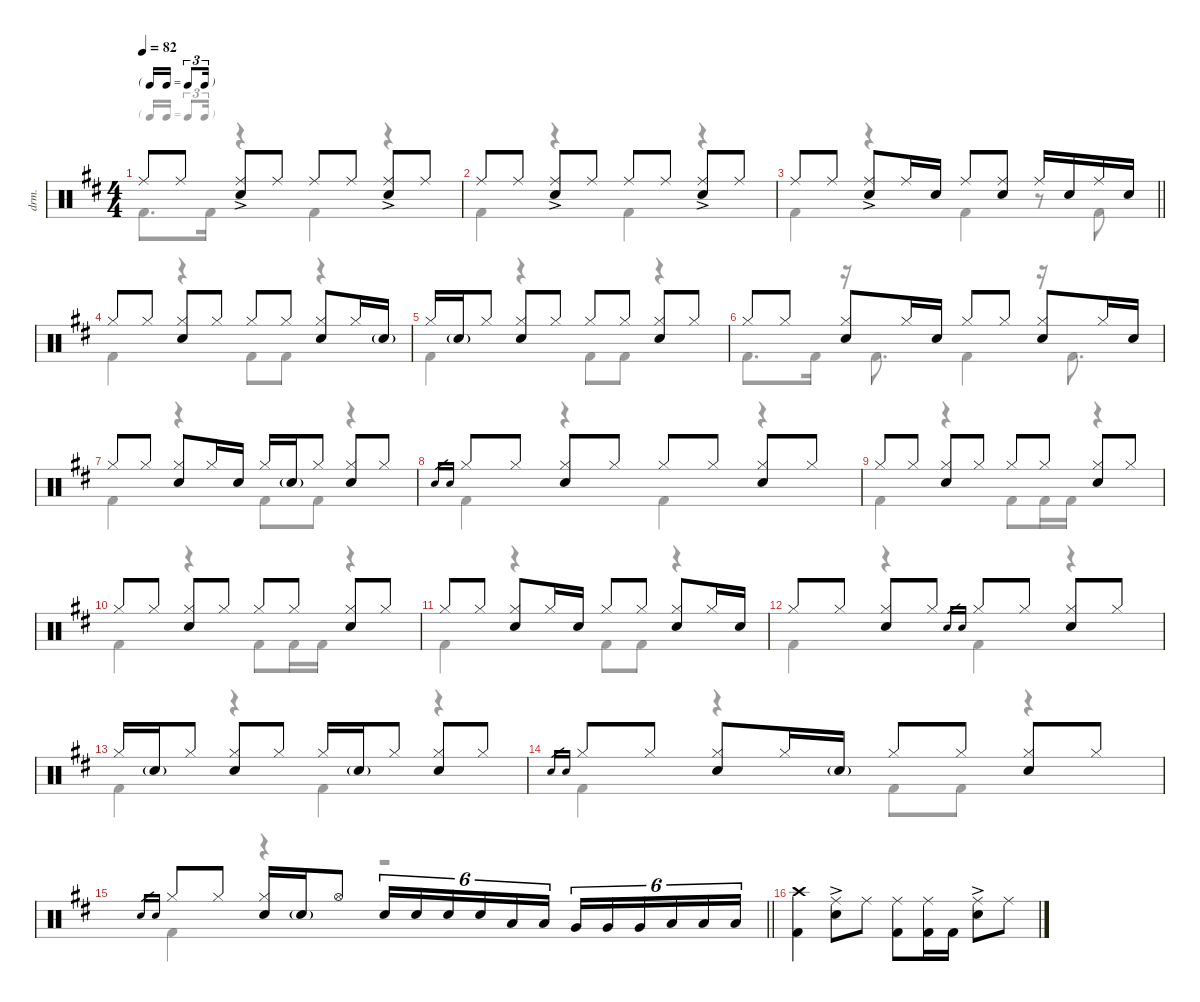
\defaultSystemsLayout 4
\hideDynamics
\bracketExtendMode nobrackets
\otherSystemsTrackNameOrientation horizontal
\track ("Buddy" "drm.") {instrument percussion}
\staff {score}
\articulation defaults
\voice
\ts (4 4)
\tf triplet16th
\tempo 82
\clef neutral
\ks d "Ride (middle)"{acc forcenatural}.8{dy f beam Up} "Ride (middle)"{acc forcenatural}.8{beam Up}
("Ride (middle)"{ac acc forcenatural} "Snare (hit) 2"{ac acc forcenatural}).8{beam Up} "Ride (middle)"{acc forcenatural}.8{beam Up} "Ride (middle)"{acc forcenatural}.8{beam Up} "Ride (middle)"{acc forcenatural}.8{beam Up} ("Ride (middle)"{ac acc forcenatural} "Snare (hit) 2"{ac acc forcenatural}).8{beam Up} "Ride (middle)"{acc forcenatural}.8{beam Up} |
"Ride (middle)"{acc forcenatural}.8{beam Up} "Ride (middle)"{acc forcenatural}.8{beam Up} ("Ride (middle)"{ac acc forcenatural} "Snare (hit) 2"{ac acc forcenatural}).8{beam Up} "Ride (middle)"{acc forcenatural}.8{beam Up} "Ride (middle)"{acc forcenatural}.8{beam Up} "Ride (middle)"{acc forcenatural}.8{beam Up} ("Ride (middle)"{ac acc forcenatural} "Snare (hit) 2"{ac acc forcenatural}).8{beam Up} "Ride (middle)"{acc forcenatural}.8{beam Up} |
\barLineRight lightlight "Ride (middle)"{acc forcenatural}.8{beam Up} "Ride (middle)"{acc forcenatural}.8{beam Up}
("Ride (middle)"{ac acc forcenatural} "Snare (hit) 2"{ac acc forcenatural}).8{beam Up} "Ride (middle)"{acc forcenatural}.16{beam Up} "Snare (hit) 2"{acc forcenatural}.16{beam Up} "Ride (middle)"{acc forcenatural}.8{beam Up} ("Ride (middle)"{acc forcenatural} "Snare (hit) 2"{acc forcenatural}).8{beam Up} "Ride (middle)"{acc forcenatural}.16{beam Up} "Snare (hit) 2"{acc forcenatural}.16{beam Up} "Ride (middle)"{acc forcenatural}.16{beam Up} "Snare (hit) 2"{acc forcenatural}.16{beam Up} |
"Hi-Hat (closed)"{acc forcenatural}.8{beam Up} "Hi-Hat (closed)"{acc forcenatural}.8{beam Up} ("Hi-Hat (closed)"{acc forcenatural} "Snare (hit) 2"{acc forcenatural}).8{beam Up} "Hi-Hat (closed)"{acc forcenatural}.8{beam Up} "Hi-Hat (closed)"{acc forcenatural}.8{beam Up} "Hi-Hat (closed)"{acc forcenatural}.8{beam Up} ("Hi-Hat (closed)"{acc forcenatural} "Snare (hit) 2"{acc forcenatural}).8{beam Up} "Hi-Hat (closed)"{acc forcenatural}.16{beam Up} "Snare (hit) 2"{g acc forcenatural}.16{dy mf beam Up} |
"Hi-Hat (closed)"{acc forcenatural}.16{dy f beam Up} "Snare (hit) 2"{g acc forcenatural}.16{dy mf beam Up} "Hi-Hat (closed)"{acc forcenatural}.8{dy f beam Up} ("Hi-Hat (closed)"{acc forcenatural} "Snare (hit) 2"{acc forcenatural}).8{beam Up} "Hi-Hat (closed)"{acc forcenatural}.8{beam Up} "Hi-Hat (closed)"{acc forcenatural}.8{beam Up} "Hi-Hat (closed)"{acc forcenatural}.8{beam Up} ("Hi-Hat (closed)"{acc forcenatural} "Snare (hit) 2"{acc forcenatural}).8{beam Up} "Hi-Hat (closed)"{acc forcenatural}.8{beam Up} |
"Hi-Hat (closed)"{acc forcenatural}.8{beam Up} "Hi-Hat (closed)"{acc forcenatural}.8{beam Up} ("Hi-Hat (closed)"{acc forcenatural} "Snare (hit) 2"{acc forcenatural}).8{beam Up} "Hi-Hat (closed)"{acc forcenatural}.16{beam Up} "Snare (hit) 2"{acc forcenatural}.16{beam Up} "Hi-Hat (closed)"{acc forcenatural}.8{beam Up} "Hi-Hat (closed)"{acc forcenatural}.8{beam Up} ("Hi-Hat (closed)"{acc forcenatural} "Snare (hit) 2"{acc forcenatural}).8{beam Up} "Hi-Hat (closed)"{acc forcenatural}.16{beam Up} "Snare (hit) 2"{acc forcenatural}.16{beam Up} |
"Hi-Hat (closed)"{acc forcenatural}.8{beam Up} "Hi-Hat (closed)"{acc forcenatural}.8{beam Up} ("Hi-Hat (closed)"{acc forcenatural} "Snare (hit) 2"{acc forcenatural}).8{beam Up} "Hi-Hat (closed)"{acc forcenatural}.16{beam Up} "Snare (hit) 2"{acc forcenatural}.16{beam Up} "Hi-Hat (closed)"{acc forcenatural}.16{beam Up} "Snare (hit) 2"{g acc forcenatural}.16{dy mf beam Up} "Hi-Hat (closed)"{acc forcenatural}.8{dy f beam Up} ("Hi-Hat (closed)"{acc forcenatural} "Snare (hit) 2"{acc forcenatural}).8{beam Up} "Hi-Hat (closed)"{acc forcenatural}.8{beam Up} |
"Snare (hit) 2"{acc forcenatural}.16{gr dy p beam Up} "Snare (hit) 2"{acc forcenatural}.16{gr beam Up} "Hi-Hat (closed)"{acc forcenatural}.8{dy f beam Up} "Hi-Hat (closed)"{acc forcenatural}.8{beam Up} ("Hi-Hat (closed)"{acc forcenatural} "Snare (hit) 2"{acc forcenatural}).8{beam Up} "Hi-Hat (closed)"{acc forcenatural}.8{beam Up} "Hi-Hat (closed)"{acc forcenatural}.8{beam Up} "Hi-Hat (closed)"{acc forcenatural}.8{beam Up} ("Hi-Hat (closed)"{acc forcenatural} "Snare (hit) 2"{acc forcenatural}).8{beam Up} "Hi-Hat (closed)"{acc forcenatural}.8{beam Up} |
"Hi-Hat (closed)"{acc forcenatural}.8{beam Up} "Hi-Hat (closed)"{acc forcenatural}.8{beam Up} ("Hi-Hat (closed)"{acc forcenatural} "Snare (hit) 2"{acc forcenatural}).8{beam Up} "Hi-Hat (closed)"{acc forcenatural}.8{beam Up} "Hi-Hat (closed)"{acc forcenatural}.8{beam Up} "Hi-Hat (closed)"{acc forcenatural}.8{beam Up} ("Hi-Hat (closed)"{acc forcenatural} "Snare (hit) 2"{acc forcenatural}).8{beam Up} "Hi-Hat (closed)"{acc forcenatural}.8{beam Up} |
"Hi-Hat (closed)"{acc forcenatural}.8{beam Up} "Hi-Hat (closed)"{acc forcenatural}.8{beam Up} ("Hi-Hat (closed)"{acc forcenatural} "Snare (hit) 2"{acc forcenatural}).8{beam Up} "Hi-Hat (closed)"{acc forcenatural}.8{beam Up} "Hi-Hat (closed)"{acc forcenatural}.8{beam Up} "Hi-Hat (closed)"{acc forcenatural}.8{beam Up} ("Hi-Hat (closed)"{acc forcenatural} "Snare (hit) 2"{acc forcenatural}).8{beam Up} "Hi-Hat (closed)"{acc forcenatural}.8{beam Up} |
"Hi-Hat (closed)"{acc forcenatural}.8{beam Up} "Hi-Hat (closed)"{acc forcenatural}.8{beam Up} ("Hi-Hat (closed)"{acc forcenatural} "Snare (hit) 2"{acc forcenatural}).8{beam Up} "Hi-Hat (closed)"{acc forcenatural}.16{beam Up} "Snare (hit) 2"{acc forcenatural}.16{beam Up} "Hi-Hat (closed)"{acc forcenatural}.8{beam Up} "Hi-Hat (closed)"{acc forcenatural}.8{beam Up} ("Hi-Hat (closed)"{acc forcenatural} "Snare (hit) 2"{acc forcenatural}).8{beam Up} "Hi-Hat (closed)"{acc forcenatural}.16{beam Up} "Snare (hit) 2"{acc forcenatural}.16{beam Up} |
"Hi-Hat (closed)"{acc forcenatural}.8{beam Up} "Hi-Hat (closed)"{acc forcenatural}.8{beam Up} ("Hi-Hat (closed)"{acc forcenatural} "Snare (hit) 2"{acc forcenatural}).8{beam Up} "Hi-Hat (closed)"{acc forcenatural}.8{beam Up} "Snare (hit) 2"{acc forcenatural}.16{gr dy p beam Up} "Snare (hit) 2"{acc forcenatural}.16{gr beam Up} "Hi-Hat (closed)"{acc forcenatural}.8{dy f beam Up} "Hi-Hat (closed)"{acc forcenatural}.8{beam Up} ("Hi-Hat (closed)"{acc forcenatural} "Snare (hit) 2"{acc forcenatural}).8{beam Up} "Hi-Hat (closed)"{acc forcenatural}.8{beam Up} |
"Hi-Hat (closed)"{acc forcenatural}.16{beam Up} "Snare (hit) 2"{g acc forcenatural}.16{dy mf beam Up} "Hi-Hat (closed)"{acc forcenatural}.8{dy f beam Up} ("Hi-Hat (closed)"{acc forcenatural} "Snare (hit) 2"{acc forcenatural}).8{beam Up} "Hi-Hat (closed)"{acc forcenatural}.8{beam Up} "Hi-Hat (closed)"{acc forcenatural}.16{beam Up} "Snare (hit) 2"{g acc forcenatural}.16{dy mf beam Up} "Hi-Hat (closed)"{acc forcenatural}.8{dy f beam Up} ("Hi-Hat (closed)"{acc forcenatural} "Snare (hit) 2"{acc forcenatural}).8{beam Up} "Hi-Hat (closed)"{acc forcenatural}.8{beam Up} |
"Snare (hit) 2"{acc forcenatural}.16{gr dy p beam Up} "Snare (hit) 2"{acc forcenatural}.16{gr beam Up} "Hi-Hat (closed)"{acc forcenatural}.8{dy f beam Up} "Hi-Hat (closed)"{acc forcenatural}.8{beam Up} ("Hi-Hat (closed)"{acc forcenatural} "Snare (hit) 2"{acc forcenatural}).8{beam Up} "Hi-Hat (closed)"{acc forcenatural}.16{beam Up} "Snare (hit) 2"{g acc forcenatural}.16{dy mf beam Up} "Hi-Hat (closed)"{acc forcenatural}.8{dy f beam Up} "Hi-Hat (closed)"{acc forcenatural}.8{beam Up} ("Hi-Hat (closed)"{acc forcenatural} "Snare (hit) 2"{acc forcenatural}).8{beam Up} "Hi-Hat (closed)"{acc forcenatural}.8{beam Up} |
\barLineRight lightlight "Snare (hit) 2"{acc forcenatural}.16{gr dy p beam Up} "Snare (hit) 2"{acc forcenatural}.16{gr beam Up} "Hi-Hat (closed)"{acc forcenatural}.8{dy f beam Up} "Hi-Hat (closed)"{acc forcenatural}.8{beam Up}
("Hi-Hat (closed)"{acc forcenatural} "Snare (hit) 2"{acc forcenatural}).16{beam Up} "Snare (hit) 2"{g acc forcenatural}.16{dy mf beam Up} "Hi-Hat (open)"{acc forcenatural}.8{dy f beam Up} "Snare (hit) 2"{acc forcenatural}.16{tu (6 4) beam Up} "Snare (hit) 2"{acc forcenatural}.16{tu (6 4) beam Up} "Snare (hit) 2"{acc forcenatural}.16{tu (6 4) beam Up} "Snare (hit) 2"{acc forcenatural}.16{tu (6 4) beam Up} "Low Tom (hit)"{acc forcenatural}.16{tu (6 4) beam Up} "Low Tom (hit)"{acc forcenatural}.16{tu (6 4) beam Up} "Very Low Tom (hit)"{acc forcenatural}.16{tu (6 4) beam Up} "Very Low Tom (hit)"{acc forcenatural}.16{tu (6 4) beam Up} "Very Low Tom (hit)"{acc forcenatural}.16{tu (6 4) beam Up} "Low Floor Tom (hit)"{acc forcenatural}.16{tu (6 4) beam Up} "Low Floor Tom (hit)"{acc forcenatural}.16{tu (6 4) beam Up} "Low Floor Tom (hit)"{acc forcenatural}.16{tu (6 4) beam Up} |
("Crash high (hit)"{acc forcenatural} "Kick (hit) 2"{acc forcenatural}).4{beam Down} ("Ride (middle)"{ac acc forcenatural} "Snare (hit) 2"{ac acc forcenatural}).8{beam Down} "Ride (middle)"{acc forcenatural}.8{beam Down} ("Ride (middle)"{acc forcenatural} "Kick (hit) 2"{acc forcenatural}).8{beam Down} ("Ride (middle)"{acc forcenatural} "Kick (hit) 2"{acc forcenatural}).16{beam Down} "Kick (hit) 2"{acc forcenatural}.16{beam Down} ("Ride (middle)"{ac acc forcenatural} "Snare (hit) 2"{ac acc forcenatural}).8{beam Down} "Ride (middle)"{acc forcenatural}.8{beam Down}
\voice
\clef neutral
\ottava regular
\simile none
\ks d "Kick (hit) 2"{acc forcenatural}.8{d dy f beam Down} "Kick (hit) 2"{acc forcenatural}.16{beam Down}
r.4{beam Down} "Kick (hit) 2"{acc forcenatural}.4{beam Down} r.4{beam Down} |
"Kick (hit) 2"{acc forcenatural}.4{beam Down} r.4{beam Down} "Kick (hit) 2"{acc forcenatural}.4{beam Down} r.4{beam Down} |
\barLineRight lightlight "Kick (hit) 2"{acc forcenatural}.4{beam Down}
r.4{beam Down} "Kick (hit) 2"{acc forcenatural}.4{beam Down} r.8{beam Down} "Kick (hit) 2"{acc forcenatural}.8{beam Down} |
"Kick (hit) 2"{acc forcenatural}.4{beam Down} r.4{beam Down} "Kick (hit) 2"{acc forcenatural}.8{beam Down} "Kick (hit) 2"{acc forcenatural}.8{beam Down} r.4{beam Down} |
"Kick (hit) 2"{acc forcenatural}.4{beam Down} r.4{beam Down} "Kick (hit) 2"{acc forcenatural}.8{beam Down} "Kick (hit) 2"{acc forcenatural}.8{beam Down} r.4{beam Down} |
"Kick (hit) 2"{acc forcenatural}.8{d beam Down} "Kick (hit) 2"{acc forcenatural}.16{beam Down} r.16{beam Down} "Kick (hit) 2"{acc forcenatural}.8{d beam Down} "Kick (hit) 2"{acc forcenatural}.4{beam Down} r.16{beam Down} "Kick (hit) 2"{acc forcenatural}.8{d beam Down} |
"Kick (hit) 2"{acc forcenatural}.4{beam Down} r.4{beam Down} "Kick (hit) 2"{acc forcenatural}.8{beam Down} "Kick (hit) 2"{acc forcenatural}.8{beam Down} r.4{beam Down} |
"Kick (hit) 2"{acc forcenatural}.4{beam Down} r.4{beam Down} "Kick (hit) 2"{acc forcenatural}.4{beam Down} r.4{beam Down} |
"Kick (hit) 2"{acc forcenatural}.4{beam Down} r.4{beam Down} "Kick (hit) 2"{acc forcenatural}.8{beam Down} "Kick (hit) 2"{acc forcenatural}.16{beam Down} "Kick (hit) 2"{acc forcenatural}.16{beam Down} r.4{beam Down} |
"Kick (hit) 2"{acc forcenatural}.4{beam Down} r.4{beam Down} "Kick (hit) 2"{acc forcenatural}.8{beam Down} "Kick (hit) 2"{acc forcenatural}.16{beam Down} "Kick (hit) 2"{acc forcenatural}.16{beam Down} r.4{beam Down} |
"Kick (hit) 2"{acc forcenatural}.4{beam Down} r.4{beam Down} "Kick (hit) 2"{acc forcenatural}.8{beam Down} "Kick (hit) 2"{acc forcenatural}.8{beam Down} r.4{beam Down} |
"Kick (hit) 2"{acc forcenatural}.4{beam Down} r.4{beam Down} "Kick (hit) 2"{acc forcenatural}.4{beam Down} r.4{beam Down} |
"Kick (hit) 2"{acc forcenatural}.4{beam Down} r.4{beam Down} "Kick (hit) 2"{acc forcenatural}.4{beam Down} r.4{beam Down} |
"Kick (hit) 2"{acc forcenatural}.4{beam Down} r.4{beam Down} "Kick (hit) 2"{acc forcenatural}.8{beam Down} "Kick (hit) 2"{acc forcenatural}.8{beam Down} r.4{beam Down} |
\barLineRight lightlight "Kick (hit) 2"{acc forcenatural}.4{beam Down}
r.4{beam Down} r.2{beam Down} |
